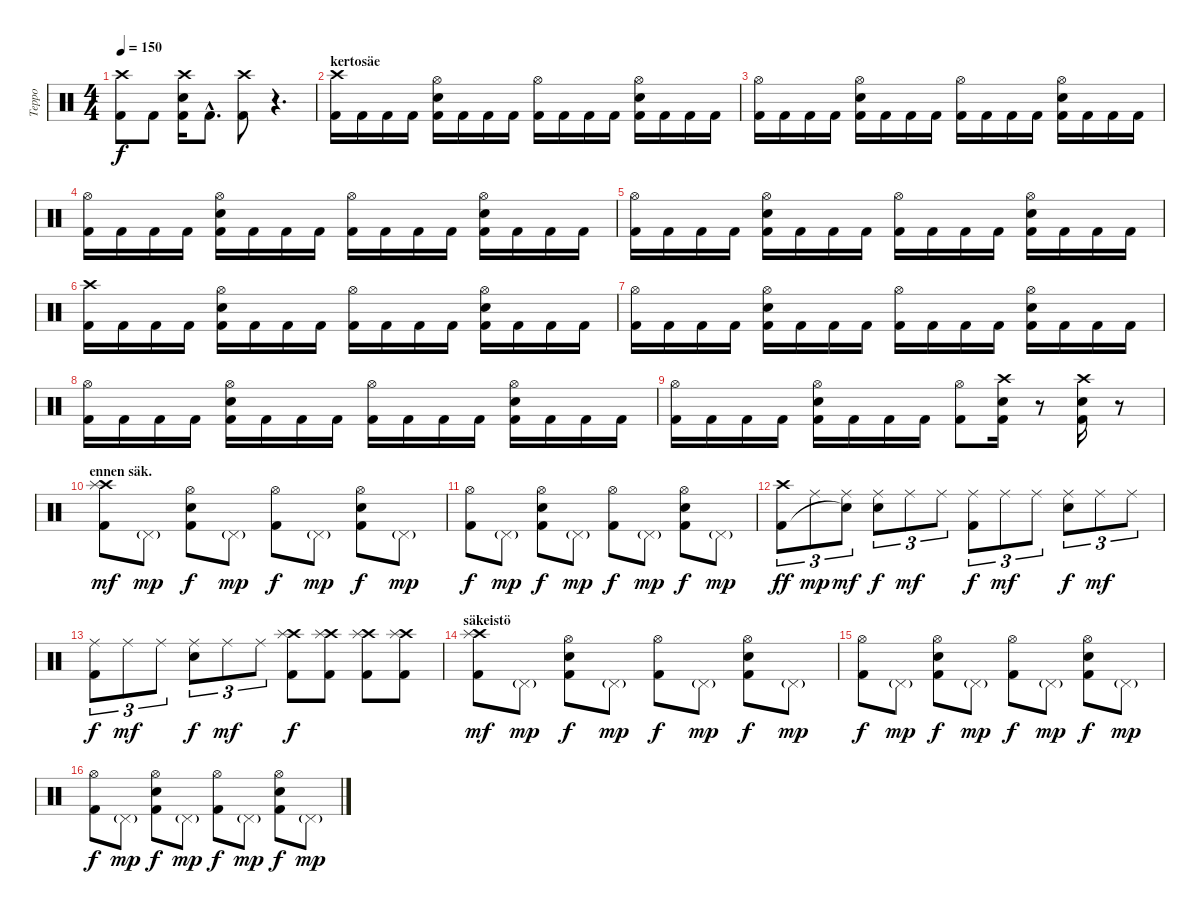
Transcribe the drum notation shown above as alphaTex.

\track ("Teppo" "Teppo") {instrument percussion}
\staff {score}
\articulation defaults
\ts (4 4)
\tempo 150
\clef neutral
\ks c
("Crash high (hit)" "Kick (hit) 2").8{dy f} "Kick (hit) 2".8 ("Crash high (hit)" "Electric Snare (hit)" "Kick (hit) 2").16 "Kick (hit) 2"{hac}.8{d} ("Crash high (hit)"{pm} "Kick (hit) 2").8 r.4{d} |
\section ("" "kertosäe")
("Crash high (hit)" "Kick (hit) 2").16 "Kick (hit) 2".16 "Kick (hit) 2".16 "Kick (hit) 2".16 ("Hi-Hat (open)" "Electric Snare (hit)" "Kick (hit) 2").16 "Kick (hit) 2".16 "Kick (hit) 2".16 "Kick (hit) 2".16 ("Hi-Hat (open)" "Kick (hit) 2").16 "Kick (hit) 2".16 "Kick (hit) 2".16 "Kick (hit) 2".16 ("Hi-Hat (open)" "Electric Snare (hit)" "Kick (hit) 2").16 "Kick (hit) 2".16 "Kick (hit) 2".16 "Kick (hit) 2".16 |
("Hi-Hat (open)" "Kick (hit) 2").16 "Kick (hit) 2".16 "Kick (hit) 2".16 "Kick (hit) 2".16 ("Hi-Hat (open)" "Electric Snare (hit)" "Kick (hit) 2").16 "Kick (hit) 2".16 "Kick (hit) 2".16 "Kick (hit) 2".16 ("Hi-Hat (open)" "Kick (hit) 2").16 "Kick (hit) 2".16 "Kick (hit) 2".16 "Kick (hit) 2".16 ("Hi-Hat (open)" "Electric Snare (hit)" "Kick (hit) 2").16 "Kick (hit) 2".16 "Kick (hit) 2".16 "Kick (hit) 2".16 |
("Hi-Hat (open)" "Kick (hit) 2").16 "Kick (hit) 2".16 "Kick (hit) 2".16 "Kick (hit) 2".16 ("Hi-Hat (open)" "Electric Snare (hit)" "Kick (hit) 2").16 "Kick (hit) 2".16 "Kick (hit) 2".16 "Kick (hit) 2".16 ("Hi-Hat (open)" "Kick (hit) 2").16 "Kick (hit) 2".16 "Kick (hit) 2".16 "Kick (hit) 2".16 ("Hi-Hat (open)" "Electric Snare (hit)" "Kick (hit) 2").16 "Kick (hit) 2".16 "Kick (hit) 2".16 "Kick (hit) 2".16 |
("Hi-Hat (open)" "Kick (hit) 2").16 "Kick (hit) 2".16 "Kick (hit) 2".16 "Kick (hit) 2".16 ("Hi-Hat (open)" "Electric Snare (hit)" "Kick (hit) 2").16 "Kick (hit) 2".16 "Kick (hit) 2".16 "Kick (hit) 2".16 ("Hi-Hat (open)" "Kick (hit) 2").16 "Kick (hit) 2".16 "Kick (hit) 2".16 "Kick (hit) 2".16 ("Hi-Hat (open)" "Electric Snare (hit)" "Kick (hit) 2").16 "Kick (hit) 2".16 "Kick (hit) 2".16 "Kick (hit) 2".16 |
("Crash high (hit)" "Kick (hit) 2").16 "Kick (hit) 2".16 "Kick (hit) 2".16 "Kick (hit) 2".16 ("Hi-Hat (open)" "Electric Snare (hit)" "Kick (hit) 2").16 "Kick (hit) 2".16 "Kick (hit) 2".16 "Kick (hit) 2".16 ("Hi-Hat (open)" "Kick (hit) 2").16 "Kick (hit) 2".16 "Kick (hit) 2".16 "Kick (hit) 2".16 ("Hi-Hat (open)" "Electric Snare (hit)" "Kick (hit) 2").16 "Kick (hit) 2".16 "Kick (hit) 2".16 "Kick (hit) 2".16 |
("Hi-Hat (open)" "Kick (hit) 2").16 "Kick (hit) 2".16 "Kick (hit) 2".16 "Kick (hit) 2".16 ("Hi-Hat (open)" "Electric Snare (hit)" "Kick (hit) 2").16 "Kick (hit) 2".16 "Kick (hit) 2".16 "Kick (hit) 2".16 ("Hi-Hat (open)" "Kick (hit) 2").16 "Kick (hit) 2".16 "Kick (hit) 2".16 "Kick (hit) 2".16 ("Hi-Hat (open)" "Electric Snare (hit)" "Kick (hit) 2").16 "Kick (hit) 2".16 "Kick (hit) 2".16 "Kick (hit) 2".16 |
("Hi-Hat (open)" "Kick (hit) 2").16 "Kick (hit) 2".16 "Kick (hit) 2".16 "Kick (hit) 2".16 ("Hi-Hat (open)" "Electric Snare (hit)" "Kick (hit) 2").16 "Kick (hit) 2".16 "Kick (hit) 2".16 "Kick (hit) 2".16 ("Hi-Hat (open)" "Kick (hit) 2").16 "Kick (hit) 2".16 "Kick (hit) 2".16 "Kick (hit) 2".16 ("Hi-Hat (open)" "Electric Snare (hit)" "Kick (hit) 2").16 "Kick (hit) 2".16 "Kick (hit) 2".16 "Kick (hit) 2".16 |
("Hi-Hat (open)" "Kick (hit) 2").16 "Kick (hit) 2".16 "Kick (hit) 2".16 "Kick (hit) 2".16 ("Hi-Hat (open)" "Electric Snare (hit)" "Kick (hit) 2").16 "Kick (hit) 2".16 "Kick (hit) 2".16 "Kick (hit) 2".16 ("Hi-Hat (open)" "Kick (hit) 2").8 ("Crash high (hit)" "Electric Snare (hit)" "Kick (hit) 2").16 r.8 ("Crash high (hit)" "Electric Snare (hit)" "Kick (hit) 2").16 r.8 |
\section ("" "ennen säk.")
("Crash high (hit)" "Splash (hit)" "Kick (hit) 2").8{dy mf} "Pedal Hi-Hat (hit)"{g}.8{dy mp} ("Hi-Hat (open)" "Electric Snare (hit)" "Kick (hit) 2").8{dy f} "Pedal Hi-Hat (hit)"{g}.8{dy mp} ("Hi-Hat (open)" "Kick (hit) 2").8{dy f} "Pedal Hi-Hat (hit)"{g}.8{dy mp} ("Hi-Hat (open)" "Electric Snare (hit)" "Kick (hit) 2").8{dy f} "Pedal Hi-Hat (hit)"{g}.8{dy mp} |
("Hi-Hat (open)" "Kick (hit) 2").8{dy f} "Pedal Hi-Hat (hit)"{g}.8{dy mp} ("Hi-Hat (open)" "Electric Snare (hit)" "Kick (hit) 2").8{dy f} "Pedal Hi-Hat (hit)"{g}.8{dy mp} ("Hi-Hat (open)" "Kick (hit) 2").8{dy f} "Pedal Hi-Hat (hit)"{g}.8{dy mp} ("Hi-Hat (open)" "Electric Snare (hit)" "Kick (hit) 2").8{dy f} "Pedal Hi-Hat (hit)"{g}.8{dy mp} |
("Crash high (hit)" "Kick (hit) 2").8{tu (3 2) dy ff} "Ride (middle)".8{tu (3 2) dy mp} ("Ride (middle)" "Snare (hit)"{t}).8{tu (3 2) dy mf} ("Ride (middle)" "Electric Snare (hit)").8{tu (3 2) dy f} "Ride (middle)".8{tu (3 2) dy mf} "Ride (middle)".8{tu (3 2)} ("Ride (middle)" "Kick (hit) 2").8{tu (3 2) dy f} "Ride (middle)".8{tu (3 2) dy mf} "Ride (middle)".8{tu (3 2)} ("Ride (middle)" "Electric Snare (hit)").8{tu (3 2) dy f} "Ride (middle)".8{tu (3 2) dy mf} "Ride (middle)".8{tu (3 2)} |
("Ride (middle)" "Kick (hit) 2").8{tu (3 2) dy f} "Ride (middle)".8{tu (3 2) dy mf} "Ride (middle)".8{tu (3 2)} ("Ride (middle)" "Electric Snare (hit)").8{tu (3 2) dy f} "Ride (middle)".8{tu (3 2) dy mf} "Ride (middle)".8{tu (3 2)} ("Crash high (hit)" "Splash (hit)" "Kick (hit) 2").8{dy f} ("Crash high (hit)" "Splash (hit)" "Kick (hit) 2").8 ("Crash high (hit)" "Splash (hit)" "Kick (hit) 2").8 ("Crash high (hit)" "Splash (hit)" "Kick (hit) 2").8 |
\section ("" "säkeistö")
("Crash high (hit)" "Splash (hit)" "Kick (hit) 2").8{dy mf} "Pedal Hi-Hat (hit)"{g}.8{dy mp} ("Hi-Hat (open)" "Electric Snare (hit)" "Kick (hit) 2").8{dy f} "Pedal Hi-Hat (hit)"{g}.8{dy mp} ("Hi-Hat (open)" "Kick (hit) 2").8{dy f} "Pedal Hi-Hat (hit)"{g}.8{dy mp} ("Hi-Hat (open)" "Electric Snare (hit)" "Kick (hit) 2").8{dy f} "Pedal Hi-Hat (hit)"{g}.8{dy mp} |
("Hi-Hat (open)" "Kick (hit) 2").8{dy f} "Pedal Hi-Hat (hit)"{g}.8{dy mp} ("Hi-Hat (open)" "Electric Snare (hit)" "Kick (hit) 2").8{dy f} "Pedal Hi-Hat (hit)"{g}.8{dy mp} ("Hi-Hat (open)" "Kick (hit) 2").8{dy f} "Pedal Hi-Hat (hit)"{g}.8{dy mp} ("Hi-Hat (open)" "Electric Snare (hit)" "Kick (hit) 2").8{dy f} "Pedal Hi-Hat (hit)"{g}.8{dy mp} |
("Hi-Hat (open)" "Kick (hit) 2").8{dy f} "Pedal Hi-Hat (hit)"{g}.8{dy mp} ("Hi-Hat (open)" "Electric Snare (hit)" "Kick (hit) 2").8{dy f} "Pedal Hi-Hat (hit)"{g}.8{dy mp} ("Hi-Hat (open)" "Kick (hit) 2").8{dy f} "Pedal Hi-Hat (hit)"{g}.8{dy mp} ("Hi-Hat (open)" "Electric Snare (hit)" "Kick (hit) 2").8{dy f} "Pedal Hi-Hat (hit)"{g}.8{dy mp}
